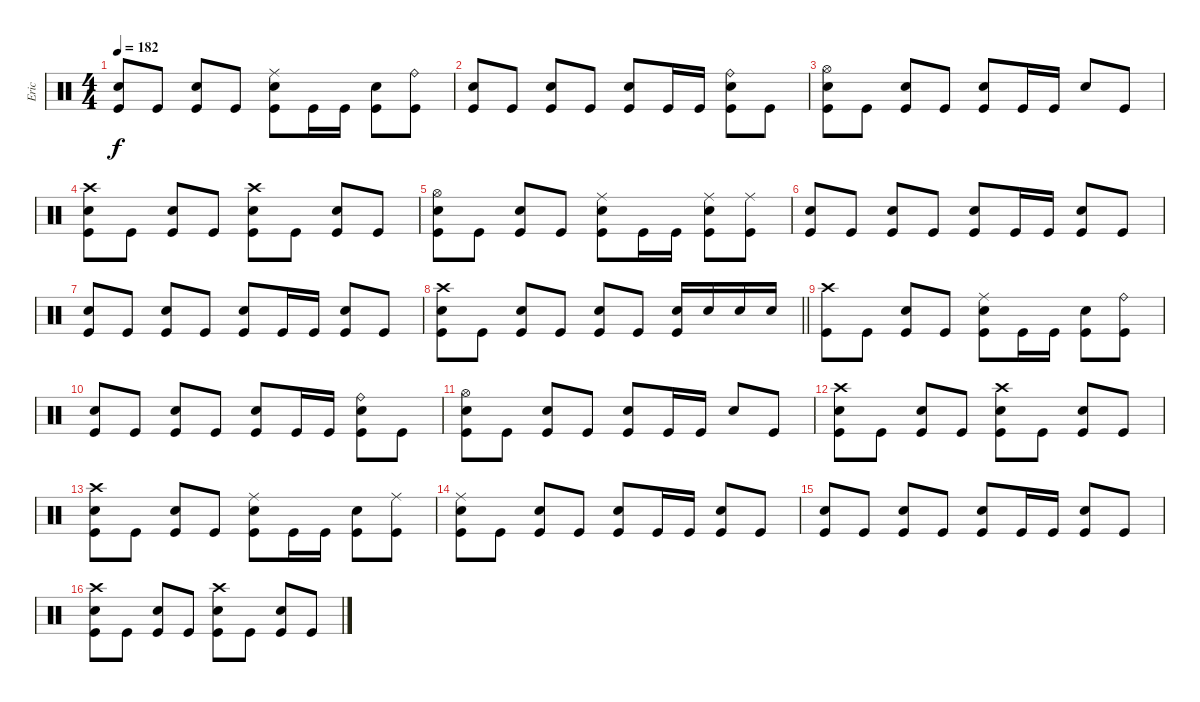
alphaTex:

\track ("Eric" "Eric") {instrument percussion}
\staff {score}
\articulation defaults
\ts (4 4)
\tempo 182
\clef neutral
\ks c
("Snare (hit) 2" "Kick (hit)").8{dy f} "Kick (hit)".8 ("Snare (hit) 2" "Kick (hit)").8 "Kick (hit)".8 ("Ride (middle)" "Snare (hit) 2" "Kick (hit)").8 "Kick (hit)".16 "Kick (hit)".16 ("Snare (hit) 2" "Kick (hit)").8 ("Ride (bell)" "Kick (hit)").8 |
("Snare (hit) 2" "Kick (hit)").8 "Kick (hit)".8 ("Snare (hit) 2" "Kick (hit)").8 "Kick (hit)".8 ("Snare (hit) 2" "Kick (hit)").8 "Kick (hit)".16 "Kick (hit)".16 ("Ride (bell)" "Snare (hit) 2" "Kick (hit)").8 "Kick (hit)".8 |
("Hi-Hat (open)" "Snare (hit) 2" "Kick (hit)").8 "Kick (hit)".8 ("Snare (hit) 2" "Kick (hit)").8 "Kick (hit)".8 ("Snare (hit) 2" "Kick (hit)").8 "Kick (hit)".16 "Kick (hit)".16 "Snare (hit) 2".8 "Kick (hit)".8 |
("Crash high (hit)" "Snare (hit) 2" "Kick (hit)").8 "Kick (hit)".8 ("Snare (hit) 2" "Kick (hit)").8 "Kick (hit)".8 ("Crash high (hit)" "Snare (hit) 2" "Kick (hit)").8 "Kick (hit)".8 ("Snare (hit) 2" "Kick (hit)").8 "Kick (hit)".8 |
("Hi-Hat (open)" "Snare (hit) 2" "Kick (hit)").8 "Kick (hit)".8 ("Snare (hit) 2" "Kick (hit)").8 "Kick (hit)".8 ("Ride (middle)" "Snare (hit) 2" "Kick (hit)").8 "Kick (hit)".16 "Kick (hit)".16 ("Ride (middle)" "Snare (hit) 2" "Kick (hit)").8 ("Ride (middle)" "Kick (hit)").8 |
("Snare (hit) 2" "Kick (hit)").8 "Kick (hit)".8 ("Snare (hit) 2" "Kick (hit)").8 "Kick (hit)".8 ("Snare (hit) 2" "Kick (hit)").8 "Kick (hit)".16 "Kick (hit)".16 ("Snare (hit) 2" "Kick (hit)").8 "Kick (hit)".8 |
("Snare (hit) 2" "Kick (hit)").8 "Kick (hit)".8 ("Snare (hit) 2" "Kick (hit)").8 "Kick (hit)".8 ("Snare (hit) 2" "Kick (hit)").8 "Kick (hit)".16 "Kick (hit)".16 ("Snare (hit) 2" "Kick (hit)").8 "Kick (hit)".8 |
\barLineRight lightlight
("Crash high (hit)" "Snare (hit) 2" "Kick (hit)").8 "Kick (hit)".8 ("Snare (hit) 2" "Kick (hit)").8 "Kick (hit)".8 ("Snare (hit) 2" "Kick (hit)").8 "Kick (hit)".8 ("Snare (hit) 2" "Kick (hit)").16 "Snare (hit) 2".16 "Snare (hit) 2".16 "Snare (hit) 2".16 |
("Crash high (hit)" "Kick (hit)").8 "Kick (hit)".8 ("Snare (hit) 2" "Kick (hit)").8 "Kick (hit)".8 ("Ride (middle)" "Snare (hit) 2" "Kick (hit)").8 "Kick (hit)".16 "Kick (hit)".16 ("Snare (hit) 2" "Kick (hit)").8 ("Ride (bell)" "Kick (hit)").8 |
("Snare (hit) 2" "Kick (hit)").8 "Kick (hit)".8 ("Snare (hit) 2" "Kick (hit)").8 "Kick (hit)".8 ("Snare (hit) 2" "Kick (hit)").8 "Kick (hit)".16 "Kick (hit)".16 ("Ride (bell)" "Snare (hit) 2" "Kick (hit)").8 "Kick (hit)".8 |
("Hi-Hat (open)" "Snare (hit) 2" "Kick (hit)").8 "Kick (hit)".8 ("Snare (hit) 2" "Kick (hit)").8 "Kick (hit)".8 ("Snare (hit) 2" "Kick (hit)").8 "Kick (hit)".16 "Kick (hit)".16 "Snare (hit) 2".8 "Kick (hit)".8 |
("Crash high (hit)" "Snare (hit) 2" "Kick (hit)").8 "Kick (hit)".8 ("Snare (hit) 2" "Kick (hit)").8 "Kick (hit)".8 ("Crash high (hit)" "Snare (hit) 2" "Kick (hit)").8 "Kick (hit)".8 ("Snare (hit) 2" "Kick (hit)").8 "Kick (hit)".8 |
("Crash high (hit)" "Snare (hit) 2" "Kick (hit)").8 "Kick (hit)".8 ("Snare (hit) 2" "Kick (hit)").8 "Kick (hit)".8 ("Ride (middle)" "Snare (hit) 2" "Kick (hit)").8 "Kick (hit)".16 "Kick (hit)".16 ("Snare (hit) 2" "Kick (hit)").8 ("Ride (middle)" "Kick (hit)").8 |
("Ride (middle)" "Snare (hit) 2" "Kick (hit)").8 "Kick (hit)".8 ("Snare (hit) 2" "Kick (hit)").8 "Kick (hit)".8 ("Snare (hit) 2" "Kick (hit)").8 "Kick (hit)".16 "Kick (hit)".16 ("Snare (hit) 2" "Kick (hit)").8 "Kick (hit)".8 |
("Snare (hit) 2" "Kick (hit)").8 "Kick (hit)".8 ("Snare (hit) 2" "Kick (hit)").8 "Kick (hit)".8 ("Snare (hit) 2" "Kick (hit)").8 "Kick (hit)".16 "Kick (hit)".16 ("Snare (hit) 2" "Kick (hit)").8 "Kick (hit)".8 |
("Crash high (hit)" "Snare (hit) 2" "Kick (hit)").8 "Kick (hit)".8 ("Snare (hit) 2" "Kick (hit)").8 "Kick (hit)".8 ("Crash high (hit)" "Snare (hit) 2" "Kick (hit)").8 "Kick (hit)".8 ("Snare (hit) 2" "Kick (hit)").8 "Kick (hit)".8
